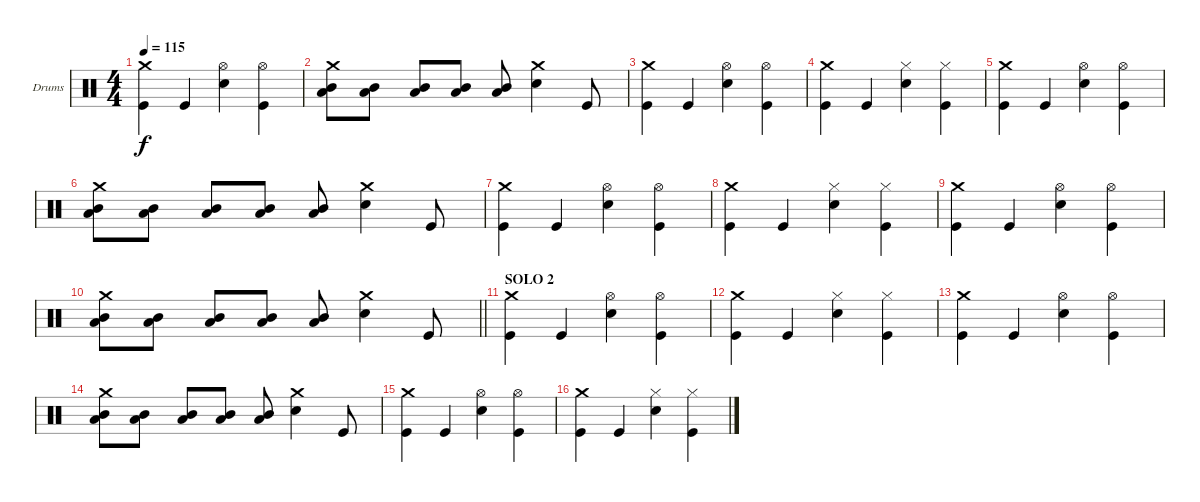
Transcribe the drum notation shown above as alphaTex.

\bracketExtendMode groupsimilarinstruments
\firstSystemTrackNameOrientation horizontal
\otherSystemsTrackNameOrientation horizontal
\track ("Drumkit" "Drums") {instrument percussion}
\staff {score}
\articulation defaults
\ts (4 4)
\tempo 115
\clef neutral
\ks aminor
("Crash medium (hit)" "Kick (hit)").4{dy f} "Kick (hit)".4 ("Hi-Hat (open)" "Snare (hit) 2").4 ("Hi-Hat (open)" "Kick (hit)").4 |
("Crash medium (hit)" "Low Tom (hit)" "Mid Tom (hit)").8 ("Low Tom (hit)" "Mid Tom (hit)").8 ("Low Tom (hit)" "Mid Tom (hit)").8 ("Low Tom (hit)" "Mid Tom (hit)").8 ("Low Tom (hit)" "Mid Tom (hit)").8 ("Crash medium (hit)" "Snare (hit) 2").4 "Kick (hit)".8 |
("Crash medium (hit)" "Kick (hit)").4 "Kick (hit)".4 ("Hi-Hat (open)" "Snare (hit) 2").4 ("Hi-Hat (open)" "Kick (hit)").4 |
("Crash medium (hit)" "Kick (hit)").4 "Kick (hit)".4 ("Hi-Hat (closed)" "Snare (hit) 2").4 ("Hi-Hat (closed)" "Kick (hit)").4 |
("Crash medium (hit)" "Kick (hit)").4 "Kick (hit)".4 ("Hi-Hat (open)" "Snare (hit) 2").4 ("Hi-Hat (open)" "Kick (hit)").4 |
("Crash medium (hit)" "Low Tom (hit)" "Mid Tom (hit)").8 ("Low Tom (hit)" "Mid Tom (hit)").8 ("Low Tom (hit)" "Mid Tom (hit)").8 ("Low Tom (hit)" "Mid Tom (hit)").8 ("Low Tom (hit)" "Mid Tom (hit)").8 ("Crash medium (hit)" "Snare (hit) 2").4 "Kick (hit)".8 |
("Crash medium (hit)" "Kick (hit)").4 "Kick (hit)".4 ("Hi-Hat (open)" "Snare (hit) 2").4 ("Hi-Hat (open)" "Kick (hit)").4 |
("Crash medium (hit)" "Kick (hit)").4 "Kick (hit)".4 ("Hi-Hat (closed)" "Snare (hit) 2").4 ("Hi-Hat (closed)" "Kick (hit)").4 |
("Crash medium (hit)" "Kick (hit)").4 "Kick (hit)".4 ("Hi-Hat (open)" "Snare (hit) 2").4 ("Hi-Hat (open)" "Kick (hit)").4 |
\barLineRight lightlight
("Crash medium (hit)" "Low Tom (hit)" "Mid Tom (hit)").8 ("Low Tom (hit)" "Mid Tom (hit)").8 ("Low Tom (hit)" "Mid Tom (hit)").8 ("Low Tom (hit)" "Mid Tom (hit)").8 ("Low Tom (hit)" "Mid Tom (hit)").8 ("Crash medium (hit)" "Snare (hit) 2").4 "Kick (hit)".8 |
\section ("" "SOLO 2")
("Crash medium (hit)" "Kick (hit)").4 "Kick (hit)".4 ("Hi-Hat (open)" "Snare (hit) 2").4 ("Hi-Hat (open)" "Kick (hit)").4 |
("Crash medium (hit)" "Kick (hit)").4 "Kick (hit)".4 ("Hi-Hat (closed)" "Snare (hit) 2").4 ("Hi-Hat (closed)" "Kick (hit)").4 |
("Crash medium (hit)" "Kick (hit)").4 "Kick (hit)".4 ("Hi-Hat (open)" "Snare (hit) 2").4 ("Hi-Hat (open)" "Kick (hit)").4 |
("Crash medium (hit)" "Low Tom (hit)" "Mid Tom (hit)").8 ("Low Tom (hit)" "Mid Tom (hit)").8 ("Low Tom (hit)" "Mid Tom (hit)").8 ("Low Tom (hit)" "Mid Tom (hit)").8 ("Low Tom (hit)" "Mid Tom (hit)").8 ("Crash medium (hit)" "Snare (hit) 2").4 "Kick (hit)".8 |
("Crash medium (hit)" "Kick (hit)").4 "Kick (hit)".4 ("Hi-Hat (open)" "Snare (hit) 2").4 ("Hi-Hat (open)" "Kick (hit)").4 |
("Crash medium (hit)" "Kick (hit)").4 "Kick (hit)".4 ("Hi-Hat (closed)" "Snare (hit) 2").4 ("Hi-Hat (closed)" "Kick (hit)").4
